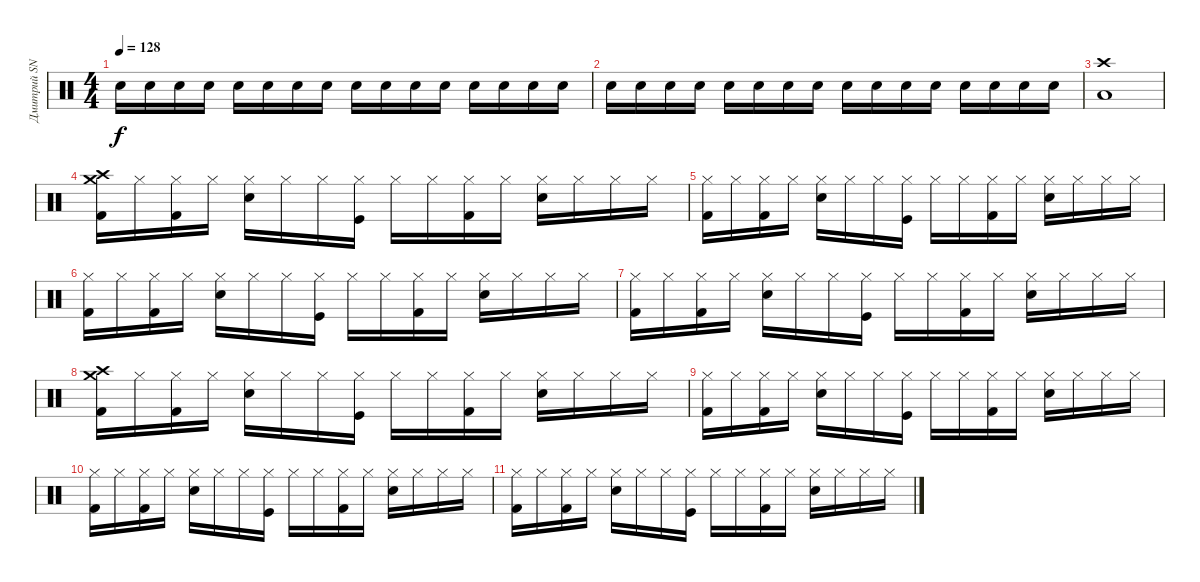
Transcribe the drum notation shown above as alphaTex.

\track ("Дмитрий SNAKE Хакимов (ударные)" "Дмитрий SN") {instrument percussion}
\staff {score}
\articulation defaults
\ts (4 4)
\tempo 128
\clef neutral
\ks c "Snare (hit) 2".16{dy f} "Snare (hit) 2".16 "Snare (hit) 2".16 "Snare (hit) 2".16 "Snare (hit) 2".16 "Snare (hit) 2".16 "Snare (hit) 2".16 "Snare (hit) 2".16 "Snare (hit) 2".16 "Snare (hit) 2".16 "Snare (hit) 2".16 "Snare (hit) 2".16 "Snare (hit) 2".16 "Snare (hit) 2".16 "Snare (hit) 2".16 "Snare (hit) 2".16
|
"Snare (hit) 2".16 "Snare (hit) 2".16 "Snare (hit) 2".16 "Snare (hit) 2".16 "Snare (hit) 2".16 "Snare (hit) 2".16 "Snare (hit) 2".16 "Snare (hit) 2".16 "Snare (hit) 2".16 "Snare (hit) 2".16 "Snare (hit) 2".16 "Snare (hit) 2".16 "Snare (hit) 2".16 "Snare (hit) 2".16 "Snare (hit) 2".16 "Snare (hit) 2".16 |
("Crash high (hit)" "Low Floor Tom (hit)").1 |
("Crash high (hit)" "Crash medium (hit)" "Kick (hit) 2").16 "Hi-Hat (closed)".16 ("Hi-Hat (closed)" "Kick (hit) 2").16 "Hi-Hat (closed)".16 ("Hi-Hat (closed)" "Snare (hit) 2").16 "Hi-Hat (closed)".16 "Hi-Hat (closed)".16 ("Hi-Hat (closed)" "Kick (hit)").16 "Hi-Hat (closed)".16 "Hi-Hat (closed)".16 ("Hi-Hat (closed)" "Kick (hit) 2").16 "Hi-Hat (closed)".16 ("Hi-Hat (closed)" "Snare (hit) 2").16 "Hi-Hat (closed)".16 "Hi-Hat (closed)".16 "Hi-Hat (closed)".16 |
("Hi-Hat (closed)" "Kick (hit) 2").16 "Hi-Hat (closed)".16 ("Hi-Hat (closed)" "Kick (hit) 2").16 "Hi-Hat (closed)".16 ("Hi-Hat (closed)" "Snare (hit) 2").16 "Hi-Hat (closed)".16 "Hi-Hat (closed)".16 ("Hi-Hat (closed)" "Kick (hit)").16 "Hi-Hat (closed)".16 "Hi-Hat (closed)".16 ("Hi-Hat (closed)" "Kick (hit) 2").16 "Hi-Hat (closed)".16 ("Hi-Hat (closed)" "Snare (hit) 2").16 "Hi-Hat (closed)".16 "Hi-Hat (closed)".16 "Hi-Hat (closed)".16 |
("Hi-Hat (closed)" "Kick (hit) 2").16 "Hi-Hat (closed)".16 ("Hi-Hat (closed)" "Kick (hit) 2").16 "Hi-Hat (closed)".16 ("Hi-Hat (closed)" "Snare (hit) 2").16 "Hi-Hat (closed)".16 "Hi-Hat (closed)".16 ("Hi-Hat (closed)" "Kick (hit)").16 "Hi-Hat (closed)".16 "Hi-Hat (closed)".16 ("Hi-Hat (closed)" "Kick (hit) 2").16 "Hi-Hat (closed)".16 ("Hi-Hat (closed)" "Snare (hit) 2").16 "Hi-Hat (closed)".16 "Hi-Hat (closed)".16 "Hi-Hat (closed)".16 |
("Hi-Hat (closed)" "Kick (hit) 2").16 "Hi-Hat (closed)".16 ("Hi-Hat (closed)" "Kick (hit) 2").16 "Hi-Hat (closed)".16 ("Hi-Hat (closed)" "Snare (hit) 2").16 "Hi-Hat (closed)".16 "Hi-Hat (closed)".16 ("Hi-Hat (closed)" "Kick (hit)").16 "Hi-Hat (closed)".16 "Hi-Hat (closed)".16 ("Hi-Hat (closed)" "Kick (hit) 2").16 "Hi-Hat (closed)".16 ("Hi-Hat (closed)" "Snare (hit) 2").16 "Hi-Hat (closed)".16 "Hi-Hat (closed)".16 "Hi-Hat (closed)".16 |
("Crash high (hit)" "Crash medium (hit)" "Kick (hit) 2").16 "Hi-Hat (closed)".16 ("Hi-Hat (closed)" "Kick (hit) 2").16 "Hi-Hat (closed)".16 ("Hi-Hat (closed)" "Snare (hit) 2").16 "Hi-Hat (closed)".16 "Hi-Hat (closed)".16 ("Hi-Hat (closed)" "Kick (hit)").16 "Hi-Hat (closed)".16 "Hi-Hat (closed)".16 ("Hi-Hat (closed)" "Kick (hit) 2").16 "Hi-Hat (closed)".16 ("Hi-Hat (closed)" "Snare (hit) 2").16 "Hi-Hat (closed)".16 "Hi-Hat (closed)".16 "Hi-Hat (closed)".16 |
("Hi-Hat (closed)" "Kick (hit) 2").16 "Hi-Hat (closed)".16 ("Hi-Hat (closed)" "Kick (hit) 2").16 "Hi-Hat (closed)".16 ("Hi-Hat (closed)" "Snare (hit) 2").16 "Hi-Hat (closed)".16 "Hi-Hat (closed)".16 ("Hi-Hat (closed)" "Kick (hit)").16 "Hi-Hat (closed)".16 "Hi-Hat (closed)".16 ("Hi-Hat (closed)" "Kick (hit) 2").16 "Hi-Hat (closed)".16 ("Hi-Hat (closed)" "Snare (hit) 2").16 "Hi-Hat (closed)".16 "Hi-Hat (closed)".16 "Hi-Hat (closed)".16 |
("Hi-Hat (closed)" "Kick (hit) 2").16 "Hi-Hat (closed)".16 ("Hi-Hat (closed)" "Kick (hit) 2").16 "Hi-Hat (closed)".16 ("Hi-Hat (closed)" "Snare (hit) 2").16 "Hi-Hat (closed)".16 "Hi-Hat (closed)".16 ("Hi-Hat (closed)" "Kick (hit)").16 "Hi-Hat (closed)".16 "Hi-Hat (closed)".16 ("Hi-Hat (closed)" "Kick (hit) 2").16 "Hi-Hat (closed)".16 ("Hi-Hat (closed)" "Snare (hit) 2").16 "Hi-Hat (closed)".16 "Hi-Hat (closed)".16 "Hi-Hat (closed)".16 |
("Hi-Hat (closed)" "Kick (hit) 2").16 "Hi-Hat (closed)".16 ("Hi-Hat (closed)" "Kick (hit) 2").16 "Hi-Hat (closed)".16 ("Hi-Hat (closed)" "Snare (hit) 2").16 "Hi-Hat (closed)".16 "Hi-Hat (closed)".16 ("Hi-Hat (closed)" "Kick (hit)").16 "Hi-Hat (closed)".16 "Hi-Hat (closed)".16 ("Hi-Hat (closed)" "Kick (hit) 2").16 "Hi-Hat (closed)".16 ("Hi-Hat (closed)" "Snare (hit) 2").16 "Hi-Hat (closed)".16 "Hi-Hat (closed)".16 "Hi-Hat (closed)".16
